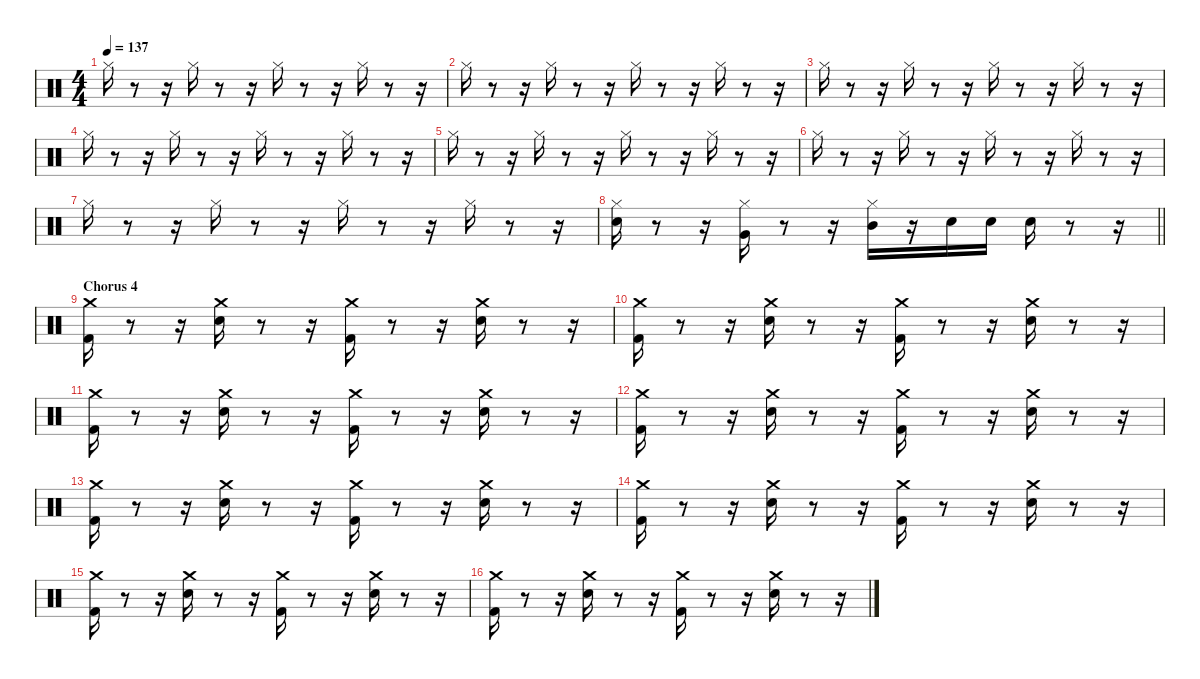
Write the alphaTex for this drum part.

\defaultSystemsLayout 4
\hideDynamics
\bracketExtendMode nobrackets
\singleTrackTrackNamePolicy hidden
\multiTrackTrackNamePolicy hidden
\firstSystemTrackNameMode fullname
\firstSystemTrackNameOrientation horizontal
\otherSystemsTrackNameOrientation horizontal
\track ("John Bonham" "drm.") {instrument percussion}
\staff {score}
\articulation defaults
\ts (4 4)
\tempo 137
\clef neutral
\ks aminor "Hi-Hat (closed)".16{dy f beam Down}
r.8{beam Down} r.16{beam Down} "Hi-Hat (closed)".16{beam Down} r.8{beam Down} r.16{beam Down} "Hi-Hat (closed)".16{beam Down} r.8{beam Down} r.16{beam Down} "Hi-Hat (closed)".16{beam Down} r.8{beam Down} r.16{beam Down} |
"Hi-Hat (closed)".16{beam Down} r.8{beam Down} r.16{beam Down} "Hi-Hat (closed)".16{beam Down} r.8{beam Down} r.16{beam Down} "Hi-Hat (closed)".16{beam Down} r.8{beam Down} r.16{beam Down} "Hi-Hat (closed)".16{beam Down} r.8{beam Down} r.16{beam Down} |
\ks c "Hi-Hat (closed)".16{beam Down}
r.8{beam Down} r.16{beam Down} "Hi-Hat (closed)".16{beam Down} r.8{beam Down} r.16{beam Down} "Hi-Hat (closed)".16{beam Down} r.8{beam Down} r.16{beam Down} "Hi-Hat (closed)".16{beam Down} r.8{beam Down} r.16{beam Down} |
"Hi-Hat (closed)".16{beam Down} r.8{beam Down} r.16{beam Down} "Hi-Hat (closed)".16{beam Down} r.8{beam Down} r.16{beam Down} "Hi-Hat (closed)".16{beam Down} r.8{beam Down} r.16{beam Down} "Hi-Hat (closed)".16{beam Down} r.8{beam Down} r.16{beam Down} |
\ks aminor "Hi-Hat (closed)".16{beam Down}
r.8{beam Down} r.16{beam Down} "Hi-Hat (closed)".16{beam Down} r.8{beam Down} r.16{beam Down} "Hi-Hat (closed)".16{beam Down} r.8{beam Down} r.16{beam Down} "Hi-Hat (closed)".16{beam Down} r.8{beam Down} r.16{beam Down} |
"Hi-Hat (closed)".16{beam Down} r.8{beam Down} r.16{beam Down} "Hi-Hat (closed)".16{beam Down} r.8{beam Down} r.16{beam Down} "Hi-Hat (closed)".16{beam Down} r.8{beam Down} r.16{beam Down} "Hi-Hat (closed)".16{beam Down} r.8{beam Down} r.16{beam Down} |
"Hi-Hat (closed)".16{beam Down} r.8{beam Down} r.16{beam Down} "Hi-Hat (closed)".16{beam Down} r.8{beam Down} r.16{beam Down} "Hi-Hat (closed)".16{beam Down} r.8{beam Down} r.16{beam Down} "Hi-Hat (closed)".16{beam Down} r.8{beam Down} r.16{beam Down} |
\barLineRight lightlight
("Hi-Hat (closed)" "Snare (hit) 2").16{beam Down} r.8{beam Down} r.16{beam Down} ("Hi-Hat (closed)" "Very Low Tom (hit)").16{beam Down} r.8{beam Down} r.16{beam Down} ("Hi-Hat (closed)" "Mid Tom (hit)").16{beam Down} r.16{beam Down} "Snare (hit) 2".16{beam Down} "Snare (hit) 2".16{beam Down} "Snare (hit) 2".16{beam Down} r.8{beam Down} r.16{beam Down} |
\section ("" "Chorus 4")
("Kick (hit) 2" "Crash medium (hit)").16{beam Down} r.8{beam Down} r.16{beam Down} ("Snare (hit) 2" "Crash medium (hit)").16{beam Down} r.8{beam Down} r.16{beam Down} ("Kick (hit) 2" "Crash medium (hit)").16{beam Down} r.8{beam Down} r.16{beam Down} ("Snare (hit) 2" "Crash medium (hit)").16{beam Down} r.8{beam Down} r.16{beam Down} |
("Kick (hit) 2" "Crash medium (hit)").16{beam Down} r.8{beam Down} r.16{beam Down} ("Snare (hit) 2" "Crash medium (hit)").16{beam Down} r.8{beam Down} r.16{beam Down} ("Kick (hit) 2" "Crash medium (hit)").16{beam Down} r.8{beam Down} r.16{beam Down} ("Snare (hit) 2" "Crash medium (hit)").16{beam Down} r.8{beam Down} r.16{beam Down} |
("Kick (hit) 2" "Crash medium (hit)").16{beam Down} r.8{beam Down} r.16{beam Down} ("Snare (hit) 2" "Crash medium (hit)").16{beam Down} r.8{beam Down} r.16{beam Down} ("Kick (hit) 2" "Crash medium (hit)").16{beam Down} r.8{beam Down} r.16{beam Down} ("Snare (hit) 2" "Crash medium (hit)").16{beam Down} r.8{beam Down} r.16{beam Down} |
("Kick (hit) 2" "Crash medium (hit)").16{beam Down} r.8{beam Down} r.16{beam Down} ("Snare (hit) 2" "Crash medium (hit)").16{beam Down} r.8{beam Down} r.16{beam Down} ("Kick (hit) 2" "Crash medium (hit)").16{beam Down} r.8{beam Down} r.16{beam Down} ("Snare (hit) 2" "Crash medium (hit)").16{beam Down} r.8{beam Down} r.16{beam Down} |
("Kick (hit) 2" "Crash medium (hit)").16{beam Down} r.8{beam Down} r.16{beam Down} ("Snare (hit) 2" "Crash medium (hit)").16{beam Down} r.8{beam Down} r.16{beam Down} ("Kick (hit) 2" "Crash medium (hit)").16{beam Down} r.8{beam Down} r.16{beam Down} ("Snare (hit) 2" "Crash medium (hit)").16{beam Down} r.8{beam Down} r.16{beam Down} |
("Kick (hit) 2" "Crash medium (hit)").16{beam Down} r.8{beam Down} r.16{beam Down} ("Snare (hit) 2" "Crash medium (hit)").16{beam Down} r.8{beam Down} r.16{beam Down} ("Kick (hit) 2" "Crash medium (hit)").16{beam Down} r.8{beam Down} r.16{beam Down} ("Snare (hit) 2" "Crash medium (hit)").16{beam Down} r.8{beam Down} r.16{beam Down} |
("Kick (hit) 2" "Crash medium (hit)").16{beam Down} r.8{beam Down} r.16{beam Down} ("Snare (hit) 2" "Crash medium (hit)").16{beam Down} r.8{beam Down} r.16{beam Down} ("Kick (hit) 2" "Crash medium (hit)").16{beam Down} r.8{beam Down} r.16{beam Down} ("Snare (hit) 2" "Crash medium (hit)").16{beam Down} r.8{beam Down} r.16{beam Down} |
("Kick (hit) 2" "Crash medium (hit)").16{beam Down} r.8{beam Down} r.16{beam Down} ("Snare (hit) 2" "Crash medium (hit)").16{beam Down} r.8{beam Down} r.16{beam Down} ("Kick (hit) 2" "Crash medium (hit)").16{beam Down} r.8{beam Down} r.16{beam Down} ("Snare (hit) 2" "Crash medium (hit)").16{beam Down} r.8{beam Down} r.16{beam Down}
